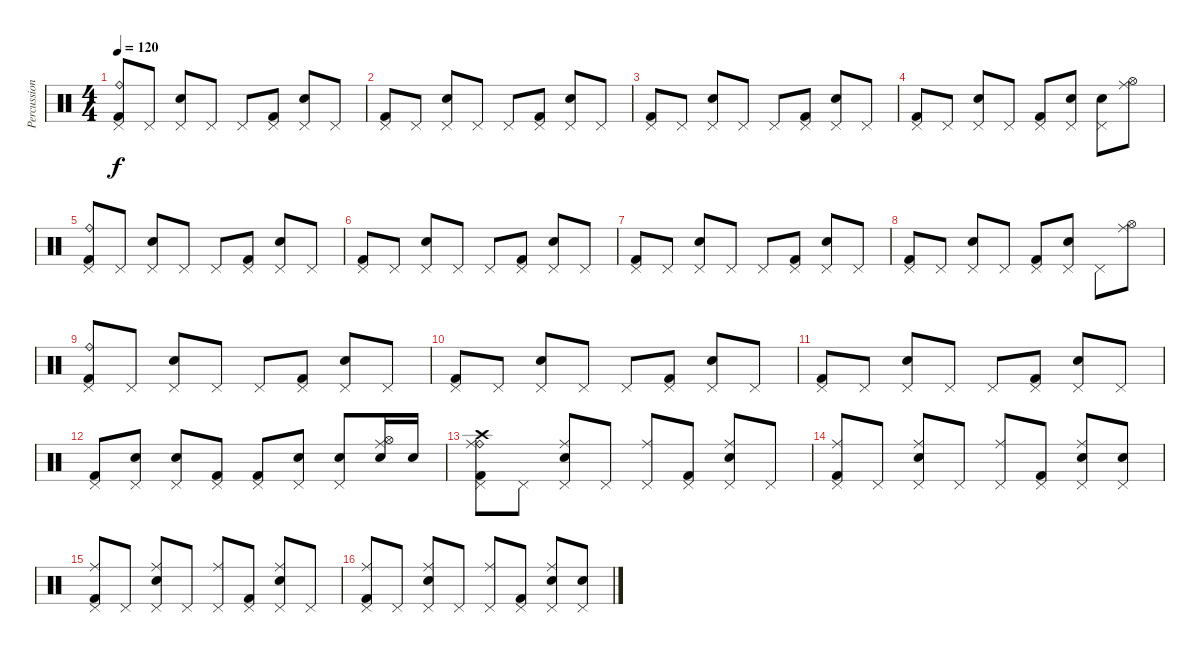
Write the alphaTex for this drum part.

\track ("Percussion" "Percussion") {instrument percussion}
\staff {score}
\articulation defaults
\ts (4 4)
\tempo 120
\clef neutral
\ks c
("Pedal Hi-Hat (hit)" "Kick (hit) 2" "Ride (bell)").8{dy f} "Pedal Hi-Hat (hit)".8 ("Pedal Hi-Hat (hit)" "Electric Snare (hit)").8 "Pedal Hi-Hat (hit)".8 "Pedal Hi-Hat (hit)".8 ("Pedal Hi-Hat (hit)" "Kick (hit) 2").8 ("Pedal Hi-Hat (hit)" "Electric Snare (hit)").8 "Pedal Hi-Hat (hit)".8 |
("Pedal Hi-Hat (hit)" "Kick (hit) 2").8 "Pedal Hi-Hat (hit)".8 ("Pedal Hi-Hat (hit)" "Electric Snare (hit)").8 "Pedal Hi-Hat (hit)".8 "Pedal Hi-Hat (hit)".8 ("Pedal Hi-Hat (hit)" "Kick (hit) 2").8 ("Pedal Hi-Hat (hit)" "Electric Snare (hit)").8 "Pedal Hi-Hat (hit)".8 |
("Pedal Hi-Hat (hit)" "Kick (hit) 2").8 "Pedal Hi-Hat (hit)".8 ("Pedal Hi-Hat (hit)" "Electric Snare (hit)").8 "Pedal Hi-Hat (hit)".8 "Pedal Hi-Hat (hit)".8 ("Pedal Hi-Hat (hit)" "Kick (hit) 2").8 ("Pedal Hi-Hat (hit)" "Electric Snare (hit)").8 "Pedal Hi-Hat (hit)".8 |
("Pedal Hi-Hat (hit)" "Kick (hit) 2").8 "Pedal Hi-Hat (hit)".8 ("Pedal Hi-Hat (hit)" "Electric Snare (hit)").8 "Pedal Hi-Hat (hit)".8 ("Pedal Hi-Hat (hit)" "Kick (hit) 2").8 ("Pedal Hi-Hat (hit)" "Electric Snare (hit)").8 ("Pedal Hi-Hat (hit)" "Electric Snare (hit)").8 ("Hi-Hat (open)" "Ride (middle)").8 |
("Pedal Hi-Hat (hit)" "Kick (hit) 2" "Ride (bell)").8 "Pedal Hi-Hat (hit)".8 ("Pedal Hi-Hat (hit)" "Electric Snare (hit)").8 "Pedal Hi-Hat (hit)".8 "Pedal Hi-Hat (hit)".8 ("Pedal Hi-Hat (hit)" "Kick (hit) 2").8 ("Pedal Hi-Hat (hit)" "Electric Snare (hit)").8 "Pedal Hi-Hat (hit)".8 |
("Pedal Hi-Hat (hit)" "Kick (hit) 2").8 "Pedal Hi-Hat (hit)".8 ("Pedal Hi-Hat (hit)" "Electric Snare (hit)").8 "Pedal Hi-Hat (hit)".8 "Pedal Hi-Hat (hit)".8 ("Pedal Hi-Hat (hit)" "Kick (hit) 2").8 ("Pedal Hi-Hat (hit)" "Electric Snare (hit)").8 "Pedal Hi-Hat (hit)".8 |
("Pedal Hi-Hat (hit)" "Kick (hit) 2").8 "Pedal Hi-Hat (hit)".8 ("Pedal Hi-Hat (hit)" "Electric Snare (hit)").8 "Pedal Hi-Hat (hit)".8 "Pedal Hi-Hat (hit)".8 ("Pedal Hi-Hat (hit)" "Kick (hit) 2").8 ("Pedal Hi-Hat (hit)" "Electric Snare (hit)").8 "Pedal Hi-Hat (hit)".8 |
("Pedal Hi-Hat (hit)" "Kick (hit) 2").8 "Pedal Hi-Hat (hit)".8 ("Pedal Hi-Hat (hit)" "Electric Snare (hit)").8 "Pedal Hi-Hat (hit)".8 ("Pedal Hi-Hat (hit)" "Kick (hit) 2").8 ("Pedal Hi-Hat (hit)" "Electric Snare (hit)").8 "Pedal Hi-Hat (hit)".8 ("Hi-Hat (open)" "Ride (middle)").8 |
("Pedal Hi-Hat (hit)" "Kick (hit) 2" "Ride (bell)").8 "Pedal Hi-Hat (hit)".8 ("Pedal Hi-Hat (hit)" "Electric Snare (hit)").8 "Pedal Hi-Hat (hit)".8 "Pedal Hi-Hat (hit)".8 ("Pedal Hi-Hat (hit)" "Kick (hit) 2").8 ("Pedal Hi-Hat (hit)" "Electric Snare (hit)").8 "Pedal Hi-Hat (hit)".8 |
("Pedal Hi-Hat (hit)" "Kick (hit) 2").8 "Pedal Hi-Hat (hit)".8 ("Pedal Hi-Hat (hit)" "Electric Snare (hit)").8 "Pedal Hi-Hat (hit)".8 "Pedal Hi-Hat (hit)".8 ("Pedal Hi-Hat (hit)" "Kick (hit) 2").8 ("Pedal Hi-Hat (hit)" "Electric Snare (hit)").8 "Pedal Hi-Hat (hit)".8 |
("Pedal Hi-Hat (hit)" "Kick (hit) 2").8 "Pedal Hi-Hat (hit)".8 ("Pedal Hi-Hat (hit)" "Electric Snare (hit)").8 "Pedal Hi-Hat (hit)".8 "Pedal Hi-Hat (hit)".8 ("Pedal Hi-Hat (hit)" "Kick (hit) 2").8 ("Pedal Hi-Hat (hit)" "Electric Snare (hit)").8 "Pedal Hi-Hat (hit)".8 |
("Pedal Hi-Hat (hit)" "Kick (hit) 2").8 ("Pedal Hi-Hat (hit)" "Electric Snare (hit)").8 ("Pedal Hi-Hat (hit)" "Electric Snare (hit)").8 ("Pedal Hi-Hat (hit)" "Kick (hit) 2").8 ("Pedal Hi-Hat (hit)" "Kick (hit) 2").8 ("Pedal Hi-Hat (hit)" "Electric Snare (hit)").8 ("Pedal Hi-Hat (hit)" "Electric Snare (hit)").8 ("Hi-Hat (open)" "Electric Snare (hit)" "Ride (middle)").16 "Electric Snare (hit)".16 |
("Pedal Hi-Hat (hit)" "Kick (hit) 2" "Crash high (hit)" "Ride (bell)" "Ride (middle)").8 "Pedal Hi-Hat (hit)".8 ("Pedal Hi-Hat (hit)" "Electric Snare (hit)" "Ride (middle)").8 "Pedal Hi-Hat (hit)".8 ("Pedal Hi-Hat (hit)" "Ride (middle)").8 ("Pedal Hi-Hat (hit)" "Kick (hit) 2").8 ("Pedal Hi-Hat (hit)" "Electric Snare (hit)" "Ride (middle)").8 "Pedal Hi-Hat (hit)".8 |
("Pedal Hi-Hat (hit)" "Kick (hit) 2" "Ride (middle)").8 "Pedal Hi-Hat (hit)".8 ("Pedal Hi-Hat (hit)" "Electric Snare (hit)" "Ride (middle)").8 "Pedal Hi-Hat (hit)".8 ("Pedal Hi-Hat (hit)" "Ride (middle)").8 ("Pedal Hi-Hat (hit)" "Kick (hit) 2").8 ("Pedal Hi-Hat (hit)" "Electric Snare (hit)" "Ride (middle)").8 ("Pedal Hi-Hat (hit)" "Electric Snare (hit)").8 |
("Pedal Hi-Hat (hit)" "Kick (hit) 2" "Ride (middle)").8 "Pedal Hi-Hat (hit)".8 ("Pedal Hi-Hat (hit)" "Electric Snare (hit)" "Ride (middle)").8 "Pedal Hi-Hat (hit)".8 ("Pedal Hi-Hat (hit)" "Ride (middle)").8 ("Pedal Hi-Hat (hit)" "Kick (hit) 2").8 ("Pedal Hi-Hat (hit)" "Electric Snare (hit)" "Ride (middle)").8 "Pedal Hi-Hat (hit)".8 |
("Pedal Hi-Hat (hit)" "Kick (hit) 2" "Ride (middle)").8 "Pedal Hi-Hat (hit)".8 ("Pedal Hi-Hat (hit)" "Electric Snare (hit)" "Ride (middle)").8 "Pedal Hi-Hat (hit)".8 ("Pedal Hi-Hat (hit)" "Ride (middle)").8 ("Pedal Hi-Hat (hit)" "Kick (hit) 2").8 ("Pedal Hi-Hat (hit)" "Electric Snare (hit)" "Ride (middle)").8 ("Pedal Hi-Hat (hit)" "Electric Snare (hit)").8
